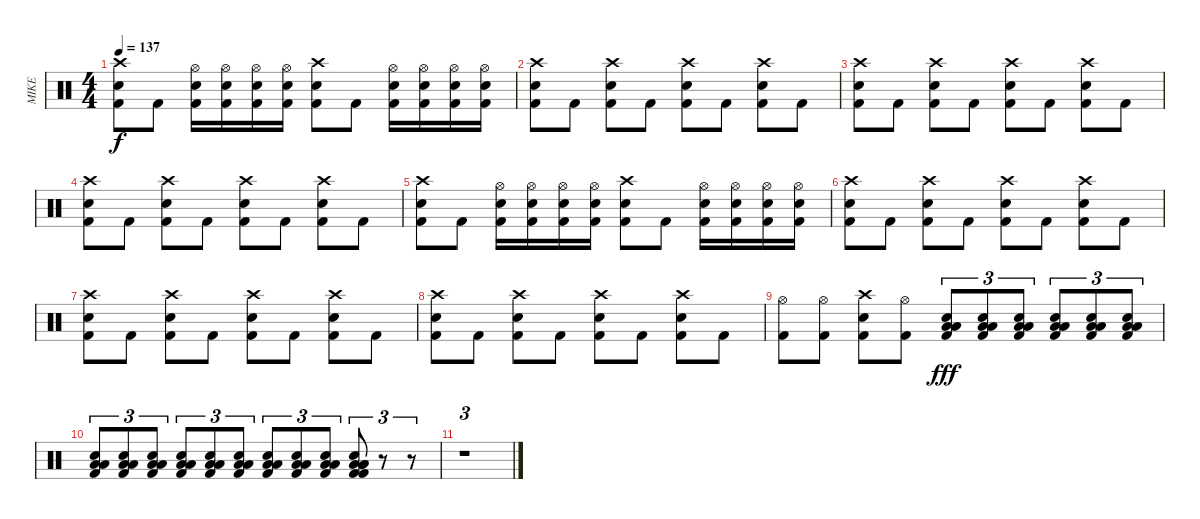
\track ("MIKE" "MIKE") {instrument percussion}
\staff {score}
\articulation defaults
\ts (4 4)
\tempo 137
\clef neutral
\ks c
("Crash high (hit)" "Kick (hit) 2" "Electric Snare (hit)").8{dy f} "Kick (hit) 2".8 ("Hi-Hat (open)" "Kick (hit) 2" "Electric Snare (hit)").16 ("Hi-Hat (open)" "Kick (hit) 2" "Electric Snare (hit)").16 ("Hi-Hat (open)" "Kick (hit) 2" "Electric Snare (hit)").16 ("Hi-Hat (open)" "Kick (hit) 2" "Electric Snare (hit)").16 ("Crash high (hit)" "Kick (hit) 2" "Electric Snare (hit)").8 "Kick (hit) 2".8 ("Hi-Hat (open)" "Kick (hit) 2" "Electric Snare (hit)").16 ("Hi-Hat (open)" "Kick (hit) 2" "Electric Snare (hit)").16 ("Hi-Hat (open)" "Kick (hit) 2" "Electric Snare (hit)").16 ("Hi-Hat (open)" "Kick (hit) 2" "Electric Snare (hit)").16 |
("Crash high (hit)" "Kick (hit) 2" "Electric Snare (hit)").8 "Kick (hit) 2".8 ("Crash high (hit)" "Kick (hit) 2" "Electric Snare (hit)").8 "Kick (hit) 2".8 ("Crash high (hit)" "Kick (hit) 2" "Electric Snare (hit)").8 "Kick (hit) 2".8 ("Crash high (hit)" "Kick (hit) 2" "Electric Snare (hit)").8 "Kick (hit) 2".8 |
("Crash high (hit)" "Kick (hit) 2" "Electric Snare (hit)").8 "Kick (hit) 2".8 ("Crash high (hit)" "Kick (hit) 2" "Electric Snare (hit)").8 "Kick (hit) 2".8 ("Crash high (hit)" "Kick (hit) 2" "Electric Snare (hit)").8 "Kick (hit) 2".8 ("Crash high (hit)" "Kick (hit) 2" "Electric Snare (hit)").8 "Kick (hit) 2".8 |
("Crash high (hit)" "Kick (hit) 2" "Electric Snare (hit)").8 "Kick (hit) 2".8 ("Crash high (hit)" "Kick (hit) 2" "Electric Snare (hit)").8 "Kick (hit) 2".8 ("Crash high (hit)" "Kick (hit) 2" "Electric Snare (hit)").8 "Kick (hit) 2".8 ("Crash high (hit)" "Kick (hit) 2" "Electric Snare (hit)").8 "Kick (hit) 2".8 |
("Crash high (hit)" "Kick (hit) 2" "Electric Snare (hit)").8 "Kick (hit) 2".8 ("Hi-Hat (open)" "Kick (hit) 2" "Electric Snare (hit)").16 ("Hi-Hat (open)" "Kick (hit) 2" "Electric Snare (hit)").16 ("Hi-Hat (open)" "Kick (hit) 2" "Electric Snare (hit)").16 ("Hi-Hat (open)" "Kick (hit) 2" "Electric Snare (hit)").16 ("Crash high (hit)" "Kick (hit) 2" "Electric Snare (hit)").8 "Kick (hit) 2".8 ("Hi-Hat (open)" "Kick (hit) 2" "Electric Snare (hit)").16 ("Hi-Hat (open)" "Kick (hit) 2" "Electric Snare (hit)").16 ("Hi-Hat (open)" "Kick (hit) 2" "Electric Snare (hit)").16 ("Hi-Hat (open)" "Kick (hit) 2" "Electric Snare (hit)").16 |
("Crash high (hit)" "Kick (hit) 2" "Electric Snare (hit)").8 "Kick (hit) 2".8 ("Crash high (hit)" "Kick (hit) 2" "Electric Snare (hit)").8 "Kick (hit) 2".8 ("Crash high (hit)" "Kick (hit) 2" "Electric Snare (hit)").8 "Kick (hit) 2".8 ("Crash high (hit)" "Kick (hit) 2" "Electric Snare (hit)").8 "Kick (hit) 2".8 |
("Crash high (hit)" "Kick (hit) 2" "Electric Snare (hit)").8 "Kick (hit) 2".8 ("Crash high (hit)" "Kick (hit) 2" "Electric Snare (hit)").8 "Kick (hit) 2".8 ("Crash high (hit)" "Kick (hit) 2" "Electric Snare (hit)").8 "Kick (hit) 2".8 ("Crash high (hit)" "Kick (hit) 2" "Electric Snare (hit)").8 "Kick (hit) 2".8 |
("Crash high (hit)" "Kick (hit) 2" "Electric Snare (hit)").8 "Kick (hit) 2".8 ("Crash high (hit)" "Kick (hit) 2" "Electric Snare (hit)").8 "Kick (hit) 2".8 ("Crash high (hit)" "Kick (hit) 2" "Electric Snare (hit)").8 "Kick (hit) 2".8 ("Crash high (hit)" "Kick (hit) 2" "Electric Snare (hit)").8 "Kick (hit) 2".8 |
("Hi-Hat (open)" "Kick (hit) 2").8 ("Hi-Hat (open)" "Kick (hit) 2").8 ("Crash high (hit)" "Electric Snare (hit)" "Kick (hit) 2").8 ("Hi-Hat (open)" "Kick (hit) 2").8 ("Kick (hit) 2" "Low Floor Tom (hit)" "Low Floor Tom (hit)" "Electric Snare (hit)").8{tu (3 2) dy fff} ("Kick (hit) 2" "Low Floor Tom (hit)" "Low Floor Tom (hit)" "Electric Snare (hit)").8{tu (3 2)} ("Kick (hit) 2" "Low Floor Tom (hit)" "Low Floor Tom (hit)" "Electric Snare (hit)").8{tu (3 2)} ("Kick (hit) 2" "Low Floor Tom (hit)" "Low Floor Tom (hit)" "Electric Snare (hit)").8{tu (3 2)} ("Kick (hit) 2" "Low Floor Tom (hit)" "Low Floor Tom (hit)" "Electric Snare (hit)").8{tu (3 2)} ("Kick (hit) 2" "Low Floor Tom (hit)" "Low Floor Tom (hit)" "Electric Snare (hit)").8{tu (3 2)} |
("Kick (hit) 2" "Low Floor Tom (hit)" "Low Floor Tom (hit)" "Electric Snare (hit)").8{tu (3 2)} ("Kick (hit) 2" "Low Floor Tom (hit)" "Low Floor Tom (hit)" "Electric Snare (hit)").8{tu (3 2)} ("Kick (hit) 2" "Low Floor Tom (hit)" "Low Floor Tom (hit)" "Electric Snare (hit)").8{tu (3 2)} ("Kick (hit) 2" "Low Floor Tom (hit)" "Low Floor Tom (hit)" "Electric Snare (hit)").8{tu (3 2)} ("Kick (hit) 2" "Low Floor Tom (hit)" "Low Floor Tom (hit)" "Electric Snare (hit)").8{tu (3 2)} ("Kick (hit) 2" "Low Floor Tom (hit)" "Low Floor Tom (hit)" "Electric Snare (hit)").8{tu (3 2)} ("Kick (hit) 2" "Low Floor Tom (hit)" "Low Floor Tom (hit)" "Electric Snare (hit)").8{tu (3 2)} ("Kick (hit) 2" "Low Floor Tom (hit)" "Low Floor Tom (hit)" "Electric Snare (hit)").8{tu (3 2)} ("Kick (hit) 2" "Low Floor Tom (hit)" "Low Floor Tom (hit)" "Electric Snare (hit)").8{tu (3 2)} ("Low Floor Tom (hit)" "Kick (hit) 2" "Kick (hit) 2" "Low Floor Tom (hit)" "Low Floor Tom (hit)" "Electric Snare (hit)").8{tu (3 2)} r.8{tu (3 2)} r.8{tu (3 2)} |
r.1{tu (3 2)}
